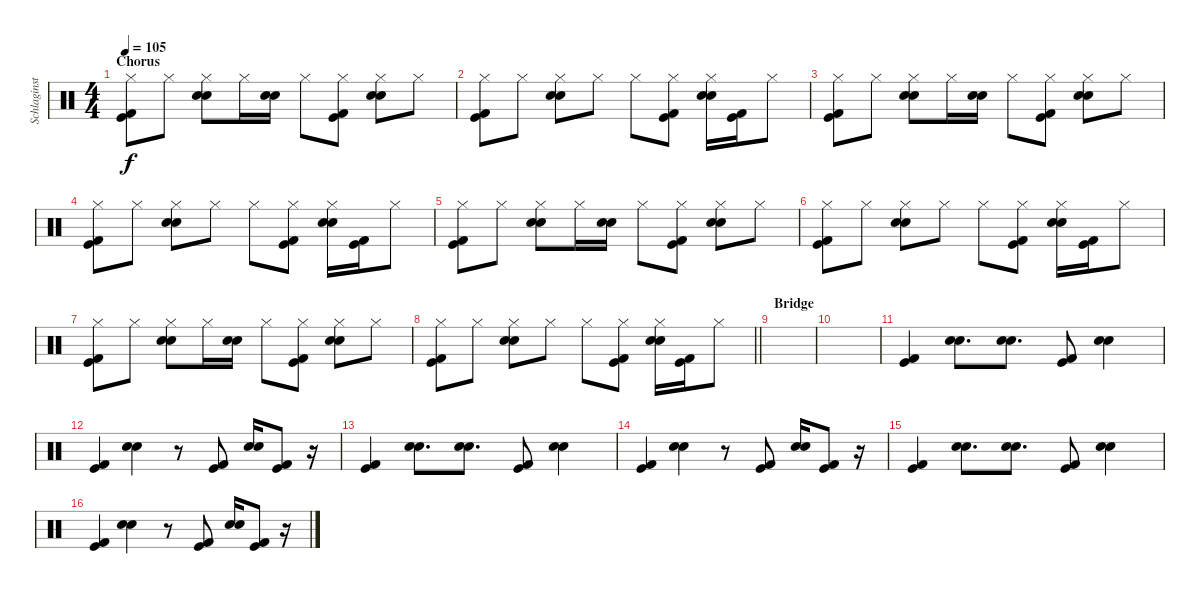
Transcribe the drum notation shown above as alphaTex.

\track ("Schlaginstrumente - Auswahl" "Schlaginst") {instrument percussion}
\staff {score}
\articulation defaults
\ts (4 4)
\section ("" "Chorus")
\tempo 105
\clef neutral
\ks c
("Kick (hit)" "Kick (hit) 2" "Hi-Hat (closed)").8{dy f} "Hi-Hat (closed)".8 ("Electric Snare (hit)" "Snare (hit) 2" "Hi-Hat (closed)").8 "Hi-Hat (closed)".16 ("Electric Snare (hit)" "Snare (hit) 2").16 "Hi-Hat (closed)".8 ("Kick (hit) 2" "Hi-Hat (closed)" "Kick (hit)").8 ("Snare (hit) 2" "Electric Snare (hit)" "Hi-Hat (closed)").8 "Hi-Hat (closed)".8 |
("Kick (hit)" "Kick (hit) 2" "Hi-Hat (closed)").8 "Hi-Hat (closed)".8 ("Snare (hit) 2" "Electric Snare (hit)" "Hi-Hat (closed)").8 "Hi-Hat (closed)".8 "Hi-Hat (closed)".8 ("Kick (hit) 2" "Kick (hit)" "Hi-Hat (closed)").8 ("Snare (hit) 2" "Electric Snare (hit)" "Hi-Hat (closed)").16 ("Kick (hit)" "Kick (hit) 2").16 "Hi-Hat (closed)".8 |
("Kick (hit)" "Kick (hit) 2" "Hi-Hat (closed)").8 "Hi-Hat (closed)".8 ("Electric Snare (hit)" "Snare (hit) 2" "Hi-Hat (closed)").8 "Hi-Hat (closed)".16 ("Electric Snare (hit)" "Snare (hit) 2").16 "Hi-Hat (closed)".8 ("Kick (hit) 2" "Hi-Hat (closed)" "Kick (hit)").8 ("Snare (hit) 2" "Electric Snare (hit)" "Hi-Hat (closed)").8 "Hi-Hat (closed)".8 |
("Kick (hit)" "Kick (hit) 2" "Hi-Hat (closed)").8 "Hi-Hat (closed)".8 ("Snare (hit) 2" "Electric Snare (hit)" "Hi-Hat (closed)").8 "Hi-Hat (closed)".8 "Hi-Hat (closed)".8 ("Kick (hit) 2" "Kick (hit)" "Hi-Hat (closed)").8 ("Snare (hit) 2" "Electric Snare (hit)" "Hi-Hat (closed)").16 ("Kick (hit)" "Kick (hit) 2").16 "Hi-Hat (closed)".8 |
("Kick (hit)" "Kick (hit) 2" "Hi-Hat (closed)").8 "Hi-Hat (closed)".8 ("Electric Snare (hit)" "Snare (hit) 2" "Hi-Hat (closed)").8 "Hi-Hat (closed)".16 ("Electric Snare (hit)" "Snare (hit) 2").16 "Hi-Hat (closed)".8 ("Kick (hit) 2" "Hi-Hat (closed)" "Kick (hit)").8 ("Snare (hit) 2" "Electric Snare (hit)" "Hi-Hat (closed)").8 "Hi-Hat (closed)".8 |
("Kick (hit)" "Kick (hit) 2" "Hi-Hat (closed)").8 "Hi-Hat (closed)".8 ("Snare (hit) 2" "Electric Snare (hit)" "Hi-Hat (closed)").8 "Hi-Hat (closed)".8 "Hi-Hat (closed)".8 ("Kick (hit) 2" "Kick (hit)" "Hi-Hat (closed)").8 ("Snare (hit) 2" "Electric Snare (hit)" "Hi-Hat (closed)").16 ("Kick (hit)" "Kick (hit) 2").16 "Hi-Hat (closed)".8 |
("Kick (hit)" "Kick (hit) 2" "Hi-Hat (closed)").8 "Hi-Hat (closed)".8 ("Electric Snare (hit)" "Snare (hit) 2" "Hi-Hat (closed)").8 "Hi-Hat (closed)".16 ("Electric Snare (hit)" "Snare (hit) 2").16 "Hi-Hat (closed)".8 ("Kick (hit) 2" "Hi-Hat (closed)" "Kick (hit)").8 ("Snare (hit) 2" "Electric Snare (hit)" "Hi-Hat (closed)").8 "Hi-Hat (closed)".8 |
\barLineRight lightlight
("Kick (hit)" "Kick (hit) 2" "Hi-Hat (closed)").8 "Hi-Hat (closed)".8 ("Snare (hit) 2" "Electric Snare (hit)" "Hi-Hat (closed)").8 "Hi-Hat (closed)".8 "Hi-Hat (closed)".8 ("Kick (hit) 2" "Kick (hit)" "Hi-Hat (closed)").8 ("Snare (hit) 2" "Electric Snare (hit)" "Hi-Hat (closed)").16 ("Kick (hit)" "Kick (hit) 2").16 "Hi-Hat (closed)".8 |
\section ("" "Bridge")
|
|
("Kick (hit)" "Kick (hit) 2").4 ("Electric Snare (hit)" "Snare (hit) 2").8{d} ("Electric Snare (hit)" "Snare (hit) 2").8{d} ("Kick (hit) 2" "Kick (hit)").8 ("Snare (hit) 2" "Electric Snare (hit)").4 |
("Kick (hit)" "Kick (hit) 2").4 ("Snare (hit) 2" "Electric Snare (hit)").4 r.8 ("Kick (hit) 2" "Kick (hit)").8 ("Snare (hit) 2" "Electric Snare (hit)").16 ("Kick (hit)" "Kick (hit) 2").8 r.16 |
("Kick (hit)" "Kick (hit) 2").4 ("Electric Snare (hit)" "Snare (hit) 2").8{d} ("Electric Snare (hit)" "Snare (hit) 2").8{d} ("Kick (hit) 2" "Kick (hit)").8 ("Snare (hit) 2" "Electric Snare (hit)").4 |
("Kick (hit)" "Kick (hit) 2").4 ("Snare (hit) 2" "Electric Snare (hit)").4 r.8 ("Kick (hit) 2" "Kick (hit)").8 ("Snare (hit) 2" "Electric Snare (hit)").16 ("Kick (hit)" "Kick (hit) 2").8 r.16 |
("Kick (hit)" "Kick (hit) 2").4 ("Electric Snare (hit)" "Snare (hit) 2").8{d} ("Electric Snare (hit)" "Snare (hit) 2").8{d} ("Kick (hit) 2" "Kick (hit)").8 ("Snare (hit) 2" "Electric Snare (hit)").4 |
("Kick (hit)" "Kick (hit) 2").4 ("Snare (hit) 2" "Electric Snare (hit)").4 r.8 ("Kick (hit) 2" "Kick (hit)").8 ("Snare (hit) 2" "Electric Snare (hit)").16 ("Kick (hit)" "Kick (hit) 2").8 r.16
